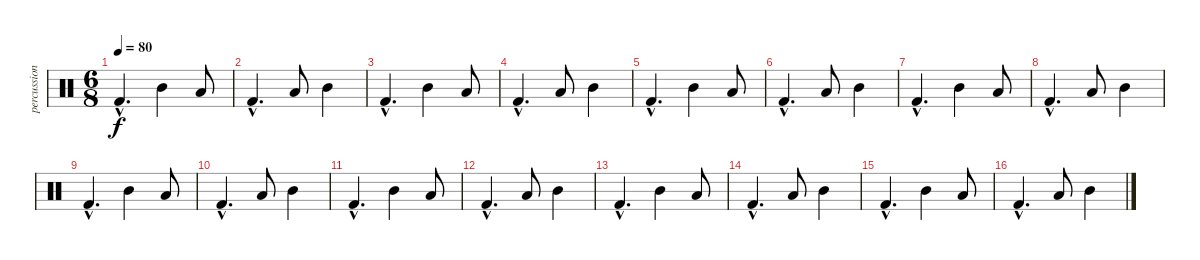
\track ("percussions" "percussion") {instrument percussion}
\staff {score}
\articulation defaults
\ts (6 8)
\tempo 80
\clef neutral
\ks c "Kick (hit) 2"{hac}.4{d dy f} "Mid Tom (hit)".4 "Low Tom (hit)".8
|
"Kick (hit) 2"{hac}.4{d} "Low Tom (hit)".8 "Mid Tom (hit)".4 |
"Kick (hit) 2"{hac}.4{d} "Mid Tom (hit)".4 "Low Tom (hit)".8 |
"Kick (hit) 2"{hac}.4{d} "Low Tom (hit)".8 "Mid Tom (hit)".4 |
"Kick (hit) 2"{hac}.4{d} "Mid Tom (hit)".4 "Low Tom (hit)".8 |
"Kick (hit) 2"{hac}.4{d} "Low Tom (hit)".8 "Mid Tom (hit)".4 |
"Kick (hit) 2"{hac}.4{d} "Mid Tom (hit)".4 "Low Tom (hit)".8 |
"Kick (hit) 2"{hac}.4{d} "Low Tom (hit)".8 "Mid Tom (hit)".4 |
"Kick (hit) 2"{hac}.4{d} "Mid Tom (hit)".4 "Low Tom (hit)".8 |
"Kick (hit) 2"{hac}.4{d} "Low Tom (hit)".8 "Mid Tom (hit)".4 |
"Kick (hit) 2"{hac}.4{d} "Mid Tom (hit)".4 "Low Tom (hit)".8 |
"Kick (hit) 2"{hac}.4{d} "Low Tom (hit)".8 "Mid Tom (hit)".4 |
"Kick (hit) 2"{hac}.4{d} "Mid Tom (hit)".4 "Low Tom (hit)".8 |
"Kick (hit) 2"{hac}.4{d} "Low Tom (hit)".8 "Mid Tom (hit)".4 |
"Kick (hit) 2"{hac}.4{d} "Mid Tom (hit)".4 "Low Tom (hit)".8 |
"Kick (hit) 2"{hac}.4{d} "Low Tom (hit)".8 "Mid Tom (hit)".4
